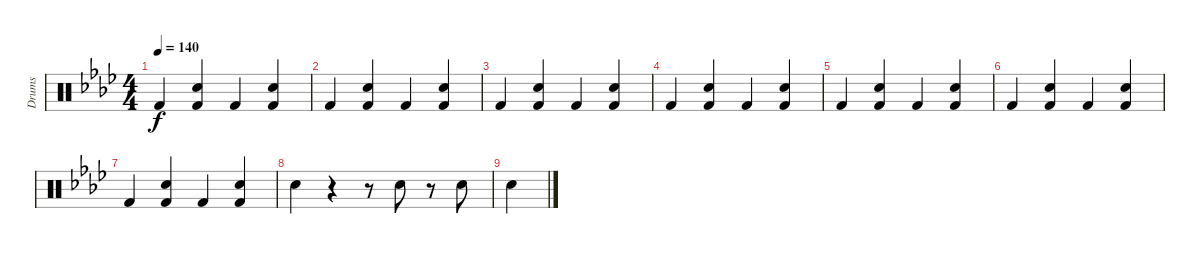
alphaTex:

\track ("Drums" "Drums") {instrument percussion}
\staff {score}
\articulation defaults
\ts (4 4)
\tempo 140
\clef neutral
\ks ab "Kick (hit) 2".4{dy f}
("Electric Snare (hit)" "Kick (hit) 2").4 "Kick (hit) 2".4 ("Electric Snare (hit)" "Kick (hit) 2").4 |
"Kick (hit) 2".4 ("Electric Snare (hit)" "Kick (hit) 2").4 "Kick (hit) 2".4 ("Electric Snare (hit)" "Kick (hit) 2").4 |
"Kick (hit) 2".4 ("Electric Snare (hit)" "Kick (hit) 2").4 "Kick (hit) 2".4 ("Electric Snare (hit)" "Kick (hit) 2").4 |
"Kick (hit) 2".4 ("Electric Snare (hit)" "Kick (hit) 2").4 "Kick (hit) 2".4 ("Electric Snare (hit)" "Kick (hit) 2").4 |
"Kick (hit) 2".4 ("Electric Snare (hit)" "Kick (hit) 2").4 "Kick (hit) 2".4 ("Electric Snare (hit)" "Kick (hit) 2").4 |
"Kick (hit) 2".4 ("Electric Snare (hit)" "Kick (hit) 2").4 "Kick (hit) 2".4 ("Electric Snare (hit)" "Kick (hit) 2").4 |
"Kick (hit) 2".4 ("Electric Snare (hit)" "Kick (hit) 2").4 "Kick (hit) 2".4 ("Electric Snare (hit)" "Kick (hit) 2").4 |
"Electric Snare (hit)".4 r.4 r.8 "Electric Snare (hit)".8 r.8 "Electric Snare (hit)".8 |
"Electric Snare (hit)".4
